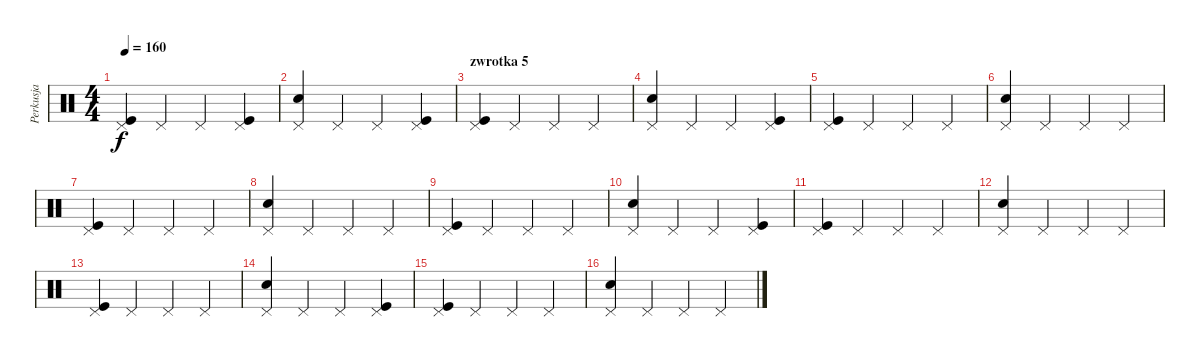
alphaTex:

\track ("Perkusja" "Perkusja") {instrument percussion}
\staff {score}
\articulation defaults
\ts (4 4)
\tempo 160
\clef neutral
\ks c
("Kick (hit)" "Pedal Hi-Hat (hit)").4{dy f} "Pedal Hi-Hat (hit)".4 "Pedal Hi-Hat (hit)".4 ("Kick (hit)" "Pedal Hi-Hat (hit)").4 |
("Snare (hit) 2" "Pedal Hi-Hat (hit)").4 "Pedal Hi-Hat (hit)".4 "Pedal Hi-Hat (hit)".4 ("Kick (hit)" "Pedal Hi-Hat (hit)").4 |
\section ("" "zwrotka 5")
("Kick (hit)" "Pedal Hi-Hat (hit)").4 "Pedal Hi-Hat (hit)".4 "Pedal Hi-Hat (hit)".4 "Pedal Hi-Hat (hit)".4 |
("Snare (hit) 2" "Pedal Hi-Hat (hit)").4 "Pedal Hi-Hat (hit)".4 "Pedal Hi-Hat (hit)".4 ("Kick (hit)" "Pedal Hi-Hat (hit)").4 |
("Kick (hit)" "Pedal Hi-Hat (hit)").4 "Pedal Hi-Hat (hit)".4 "Pedal Hi-Hat (hit)".4 "Pedal Hi-Hat (hit)".4 |
("Snare (hit) 2" "Pedal Hi-Hat (hit)").4 "Pedal Hi-Hat (hit)".4 "Pedal Hi-Hat (hit)".4 "Pedal Hi-Hat (hit)".4 |
("Kick (hit)" "Pedal Hi-Hat (hit)").4 "Pedal Hi-Hat (hit)".4 "Pedal Hi-Hat (hit)".4 "Pedal Hi-Hat (hit)".4 |
("Snare (hit) 2" "Pedal Hi-Hat (hit)").4 "Pedal Hi-Hat (hit)".4 "Pedal Hi-Hat (hit)".4 "Pedal Hi-Hat (hit)".4 |
("Kick (hit)" "Pedal Hi-Hat (hit)").4 "Pedal Hi-Hat (hit)".4 "Pedal Hi-Hat (hit)".4 "Pedal Hi-Hat (hit)".4 |
("Snare (hit) 2" "Pedal Hi-Hat (hit)").4 "Pedal Hi-Hat (hit)".4 "Pedal Hi-Hat (hit)".4 ("Kick (hit)" "Pedal Hi-Hat (hit)").4 |
("Kick (hit)" "Pedal Hi-Hat (hit)").4 "Pedal Hi-Hat (hit)".4 "Pedal Hi-Hat (hit)".4 "Pedal Hi-Hat (hit)".4 |
("Snare (hit) 2" "Pedal Hi-Hat (hit)").4 "Pedal Hi-Hat (hit)".4 "Pedal Hi-Hat (hit)".4 "Pedal Hi-Hat (hit)".4 |
("Kick (hit)" "Pedal Hi-Hat (hit)").4 "Pedal Hi-Hat (hit)".4 "Pedal Hi-Hat (hit)".4 "Pedal Hi-Hat (hit)".4 |
("Snare (hit) 2" "Pedal Hi-Hat (hit)").4 "Pedal Hi-Hat (hit)".4 "Pedal Hi-Hat (hit)".4 ("Kick (hit)" "Pedal Hi-Hat (hit)").4 |
("Kick (hit)" "Pedal Hi-Hat (hit)").4 "Pedal Hi-Hat (hit)".4 "Pedal Hi-Hat (hit)".4 "Pedal Hi-Hat (hit)".4 |
("Snare (hit) 2" "Pedal Hi-Hat (hit)").4 "Pedal Hi-Hat (hit)".4 "Pedal Hi-Hat (hit)".4 "Pedal Hi-Hat (hit)".4
